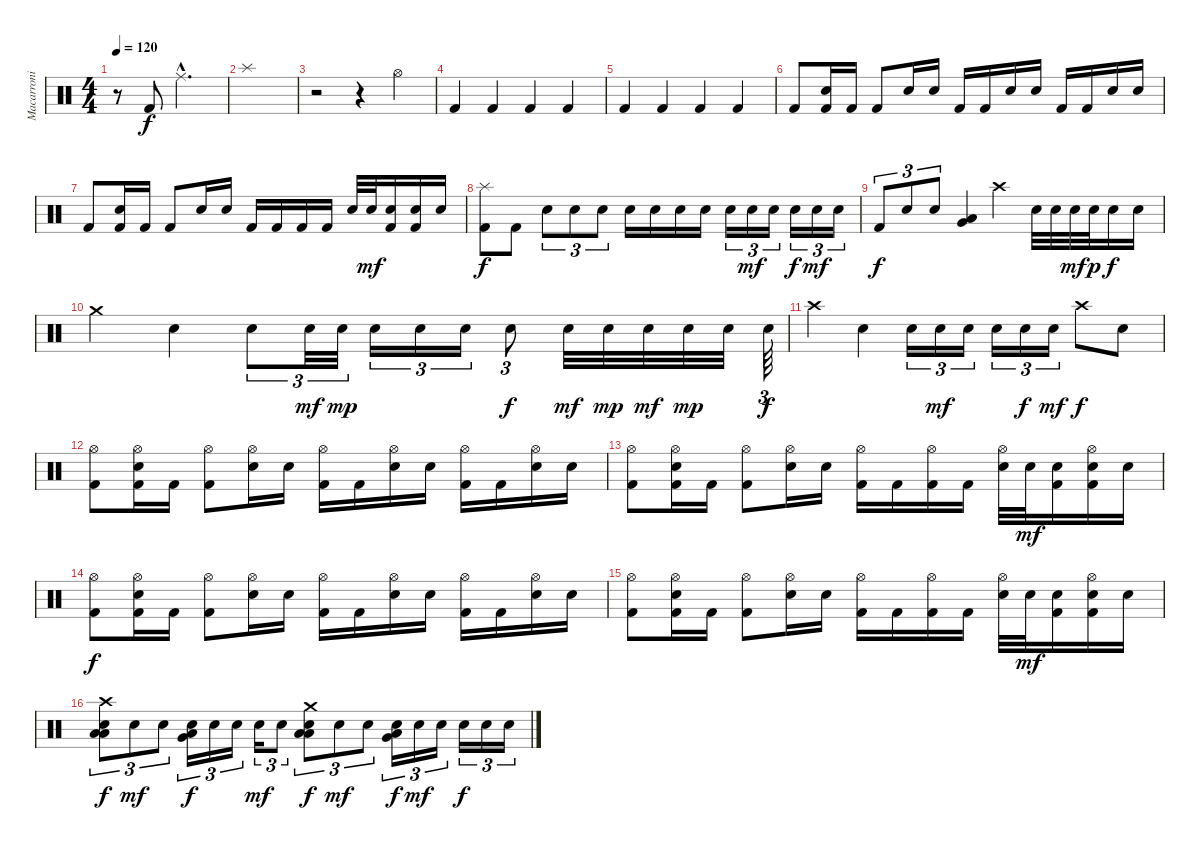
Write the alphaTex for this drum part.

\track ("Macarroni" "Macarroni") {instrument percussion}
\staff {score}
\articulation defaults
\ts (4 4)
\tempo 120
\clef neutral
\ks c
r.8{dy f} "Kick (hit) 2".8 "Ride (middle)"{hac}.2{d} |
"Splash (hit)".1 |
r.2 r.4 "Hi-Hat (open)".4 |
"Kick (hit) 2".4 "Kick (hit) 2".4 "Kick (hit) 2".4 "Kick (hit) 2".4 |
"Kick (hit) 2".4 "Kick (hit) 2".4 "Kick (hit) 2".4 "Kick (hit) 2".4 |
"Kick (hit) 2".8 ("Electric Snare (hit)" "Kick (hit) 2").16 "Kick (hit) 2".16 "Kick (hit) 2".8 "Electric Snare (hit)".16 "Electric Snare (hit)".16 "Kick (hit) 2".16 "Kick (hit) 2".16 "Electric Snare (hit)".16 "Electric Snare (hit)".16 "Kick (hit) 2".16 "Kick (hit) 2".16 "Electric Snare (hit)".16 "Electric Snare (hit)".16 |
"Kick (hit) 2".8 ("Electric Snare (hit)" "Kick (hit) 2").16 "Kick (hit) 2".16 "Kick (hit) 2".8 "Electric Snare (hit)".16 "Electric Snare (hit)".16 "Kick (hit) 2".16 "Kick (hit) 2".16 "Kick (hit) 2".16 "Kick (hit) 2".16 "Electric Snare (hit)".32 "Electric Snare (hit)".32{dy mf} ("Electric Snare (hit)" "Kick (hit) 2").16 ("Electric Snare (hit)" "Kick (hit) 2").16 "Electric Snare (hit)".16 |
("Splash (hit)" "Kick (hit) 2").8{dy f} "Kick (hit) 2".8 "Electric Snare (hit)".8{tu (3 2)} "Electric Snare (hit)".8{tu (3 2)} "Electric Snare (hit)".8{tu (3 2)} "Electric Snare (hit)".16 "Electric Snare (hit)".16 "Electric Snare (hit)".16 "Electric Snare (hit)".16 "Electric Snare (hit)".16{tu (3 2)} "Electric Snare (hit)".16{tu (3 2) dy mf} "Electric Snare (hit)".16{tu (3 2)} "Electric Snare (hit)".16{tu (3 2) dy f} "Electric Snare (hit)".16{tu (3 2) dy mf} "Electric Snare (hit)".16{tu (3 2)} |
"Kick (hit) 2".8{tu (3 2) dy f} "Electric Snare (hit)".8{tu (3 2)} "Electric Snare (hit)".8{tu (3 2)} ("Very Low Tom (hit)" "Low Tom (hit)").4 "Crash high (hit)".4 "Electric Snare (hit)".32 "Electric Snare (hit)".32 "Electric Snare (hit)".32{dy mf} "Electric Snare (hit)".32{dy p} "Electric Snare (hit)".16{dy f} "Electric Snare (hit)".16 |
"Crash medium (hit)".4 "Electric Snare (hit)".4 "Electric Snare (hit)".8{tu (3 2)} "Electric Snare (hit)".32{tu (3 2) dy mf} "Electric Snare (hit)".32{tu (3 2) dy mp} "Electric Snare (hit)".16{tu (3 2)} "Electric Snare (hit)".16{tu (3 2)} "Electric Snare (hit)".16{tu (3 2)} "Electric Snare (hit)".8{tu (3 2) dy f} "Electric Snare (hit)".32{dy mf} "Electric Snare (hit)".32{dy mp} "Electric Snare (hit)".32{dy mf} "Electric Snare (hit)".32{dy mp} "Electric Snare (hit)".32 "Electric Snare (hit)".64{tu (3 2) dy f} |
"Crash high (hit)".4 "Electric Snare (hit)".4 "Electric Snare (hit)".16{tu (3 2)} "Electric Snare (hit)".16{tu (3 2) dy mf} "Electric Snare (hit)".16{tu (3 2)} "Electric Snare (hit)".16{tu (3 2)} "Electric Snare (hit)".16{tu (3 2) dy f} "Electric Snare (hit)".16{tu (3 2) dy mf} "Crash high (hit)".8{dy f} "Electric Snare (hit)".8 |
("Hi-Hat (open)" "Kick (hit) 2").8 ("Hi-Hat (open)" "Electric Snare (hit)" "Kick (hit) 2").16 "Kick (hit) 2".16 ("Hi-Hat (open)" "Kick (hit) 2").8 ("Hi-Hat (open)" "Electric Snare (hit)").16 "Electric Snare (hit)".16 ("Hi-Hat (open)" "Kick (hit) 2").16 "Kick (hit) 2".16 ("Hi-Hat (open)" "Electric Snare (hit)").16 "Electric Snare (hit)".16 ("Hi-Hat (open)" "Kick (hit) 2").16 "Kick (hit) 2".16 ("Hi-Hat (open)" "Electric Snare (hit)").16 "Electric Snare (hit)".16 |
("Hi-Hat (open)" "Kick (hit) 2").8 ("Hi-Hat (open)" "Electric Snare (hit)" "Kick (hit) 2").16 "Kick (hit) 2".16 ("Hi-Hat (open)" "Kick (hit) 2").8 ("Hi-Hat (open)" "Electric Snare (hit)").16 "Electric Snare (hit)".16 ("Hi-Hat (open)" "Kick (hit) 2").16 "Kick (hit) 2".16 ("Hi-Hat (open)" "Kick (hit) 2").16 "Kick (hit) 2".16 ("Hi-Hat (open)" "Electric Snare (hit)").32 "Electric Snare (hit)".32{dy mf} ("Electric Snare (hit)" "Kick (hit) 2").16 ("Hi-Hat (open)" "Electric Snare (hit)" "Kick (hit) 2").16 "Electric Snare (hit)".16 |
("Hi-Hat (open)" "Kick (hit) 2").8{dy f} ("Hi-Hat (open)" "Electric Snare (hit)" "Kick (hit) 2").16 "Kick (hit) 2".16 ("Hi-Hat (open)" "Kick (hit) 2").8 ("Hi-Hat (open)" "Electric Snare (hit)").16 "Electric Snare (hit)".16 ("Hi-Hat (open)" "Kick (hit) 2").16 "Kick (hit) 2".16 ("Hi-Hat (open)" "Electric Snare (hit)").16 "Electric Snare (hit)".16 ("Hi-Hat (open)" "Kick (hit) 2").16 "Kick (hit) 2".16 ("Hi-Hat (open)" "Electric Snare (hit)").16 "Electric Snare (hit)".16 |
("Hi-Hat (open)" "Kick (hit) 2").8 ("Hi-Hat (open)" "Electric Snare (hit)" "Kick (hit) 2").16 "Kick (hit) 2".16 ("Hi-Hat (open)" "Kick (hit) 2").8 ("Hi-Hat (open)" "Electric Snare (hit)").16 "Electric Snare (hit)".16 ("Hi-Hat (open)" "Kick (hit) 2").16 "Kick (hit) 2".16 ("Hi-Hat (open)" "Kick (hit) 2").16 "Kick (hit) 2".16 ("Hi-Hat (open)" "Electric Snare (hit)").32 "Electric Snare (hit)".32{dy mf} ("Electric Snare (hit)" "Kick (hit) 2").16 ("Hi-Hat (open)" "Electric Snare (hit)" "Kick (hit) 2").16 "Electric Snare (hit)".16 |
("Crash high (hit)" "Electric Snare (hit)" "Low Tom (hit)" "Low Floor Tom (hit)").8{tu (3 2) dy f} "Electric Snare (hit)".8{tu (3 2) dy mf} "Electric Snare (hit)".8{tu (3 2)} ("Electric Snare (hit)" "Very Low Tom (hit)" "Low Floor Tom (hit)").16{tu (3 2) dy f} "Electric Snare (hit)".16{tu (3 2)} "Electric Snare (hit)".16{tu (3 2)} "Electric Snare (hit)".16{tu (3 2) dy mf} "Electric Snare (hit)".8{tu (3 2)} ("Crash medium (hit)" "Electric Snare (hit)" "Low Tom (hit)" "Low Floor Tom (hit)").8{tu (3 2) dy f} "Electric Snare (hit)".8{tu (3 2) dy mf} "Electric Snare (hit)".8{tu (3 2)} ("Electric Snare (hit)" "Very Low Tom (hit)" "Low Floor Tom (hit)").16{tu (3 2) dy f} "Electric Snare (hit)".16{tu (3 2) dy mf} "Electric Snare (hit)".16{tu (3 2)} "Electric Snare (hit)".16{tu (3 2) dy f} "Electric Snare (hit)".16{tu (3 2)} "Electric Snare (hit)".16{tu (3 2)}
